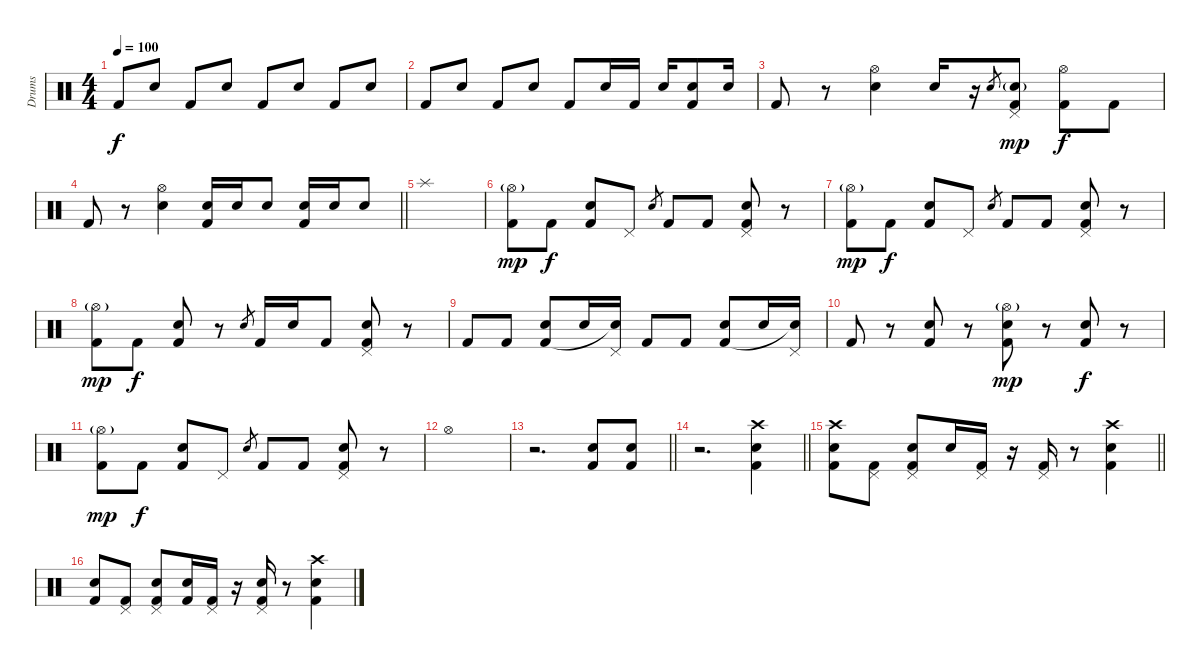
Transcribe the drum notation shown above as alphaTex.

\track ("Drums" "Drums") {instrument percussion}
\staff {score}
\articulation defaults
\ts (4 4)
\tempo 100
\clef neutral
\ks c "Kick (hit) 2".8{dy f} "Snare (hit) 2".8 "Kick (hit) 2".8 "Snare (hit) 2".8 "Kick (hit) 2".8 "Snare (hit) 2".8 "Kick (hit) 2".8 "Snare (hit) 2".8
|
"Kick (hit) 2".8 "Snare (hit) 2".8 "Kick (hit) 2".8 "Snare (hit) 2".8 "Kick (hit) 2".8 "Snare (hit) 2".16 "Kick (hit) 2".16 "Snare (hit) 2".16 ("Snare (hit) 2" "Kick (hit) 2").8 "Snare (hit) 2".16 |
"Kick (hit) 2".8 r.8 ("Hi-Hat (open)" "Snare (hit) 2").4 "Snare (hit) 2".16 r.16 "Snare (hit) 2".8{gr} ("Pedal Hi-Hat (hit)" "Snare (hit) 2"{g} "Kick (hit) 2").8{dy mp} ("Hi-Hat (open)" "Kick (hit) 2").8{dy f} "Kick (hit) 2".8 |
\barLineRight lightlight "Kick (hit) 2".8
r.8 ("Hi-Hat (open)" "Snare (hit) 2").4 ("Snare (hit) 2" "Kick (hit) 2").16 "Snare (hit) 2".16 "Snare (hit) 2".8 ("Snare (hit) 2" "Kick (hit) 2").16 "Snare (hit) 2".16 "Snare (hit) 2".8 |
"Splash (hit)".1 |
("Hi-Hat (open)"{g} "Kick (hit) 2").8{dy mp} "Kick (hit) 2".8{dy f} ("Snare (hit) 2" "Kick (hit) 2").8 "Pedal Hi-Hat (hit)".8 "Snare (hit) 2".8{gr} "Kick (hit) 2".8 "Kick (hit) 2".8 ("Pedal Hi-Hat (hit)" "Snare (hit) 2" "Kick (hit) 2").8 r.8 |
("Hi-Hat (open)"{g} "Kick (hit) 2").8{dy mp} "Kick (hit) 2".8{dy f} ("Snare (hit) 2" "Kick (hit) 2").8 "Pedal Hi-Hat (hit)".8 "Snare (hit) 2".8{gr} "Kick (hit) 2".8 "Kick (hit) 2".8 ("Pedal Hi-Hat (hit)" "Snare (hit) 2" "Kick (hit) 2").8 r.8 |
("Hi-Hat (open)"{g} "Kick (hit) 2").8{dy mp} "Kick (hit) 2".8{dy f} ("Snare (hit) 2" "Kick (hit) 2").8 r.8 "Snare (hit) 2".8{gr} "Kick (hit) 2".16 "Snare (hit) 2".16 "Kick (hit) 2".8 ("Pedal Hi-Hat (hit)" "Snare (hit) 2" "Kick (hit) 2").8 r.8 |
"Kick (hit) 2".8 "Kick (hit) 2".8 ("Snare (hit) 2" "Kick (hit) 2").8 "Snare (hit) 2".16 ("Pedal Hi-Hat (hit)" "Snare (hit)"{t}).16 "Kick (hit) 2".8 "Kick (hit) 2".8 ("Snare (hit) 2" "Kick (hit) 2").8 "Snare (hit) 2".16 ("Pedal Hi-Hat (hit)" "Snare (hit)"{t}).16 |
"Kick (hit) 2".8 r.8 ("Snare (hit) 2" "Kick (hit) 2").8 r.8 ("Hi-Hat (open)"{g} "Snare (hit) 2" "Kick (hit) 2").8{dy mp} r.8 ("Snare (hit) 2" "Kick (hit) 2").8{dy f} r.8 |
("Hi-Hat (open)"{g} "Kick (hit) 2").8{dy mp} "Kick (hit) 2".8{dy f} ("Snare (hit) 2" "Kick (hit) 2").8 "Pedal Hi-Hat (hit)".8 "Snare (hit) 2".8{gr} "Kick (hit) 2".8 "Kick (hit) 2".8 ("Pedal Hi-Hat (hit)" "Snare (hit) 2" "Kick (hit) 2").8 r.8 |
"Hi-Hat (open)".1 |
\barLineRight lightlight
r.2{d volume 14} ("Snare (hit) 2" "Kick (hit) 2").8 ("Snare (hit) 2" "Kick (hit) 2").8 |
\barLineRight lightlight
r.2{d volume 11} ("Crash high (hit)" "Snare (hit) 2" "Kick (hit) 2").4 |
\barLineRight lightlight
("Crash high (hit)" "Snare (hit) 2" "Kick (hit) 2").8 ("Pedal Hi-Hat (hit)" "Kick (hit) 2").8 ("Pedal Hi-Hat (hit)" "Snare (hit) 2" "Kick (hit) 2").8 "Snare (hit) 2".16 ("Pedal Hi-Hat (hit)" "Kick (hit) 2").16 r.16 ("Pedal Hi-Hat (hit)" "Kick (hit) 2").16 r.8 ("Crash high (hit)" "Snare (hit) 2" "Kick (hit) 2").4 |
("Snare (hit) 2" "Kick (hit) 2").8 ("Pedal Hi-Hat (hit)" "Kick (hit) 2").8 ("Pedal Hi-Hat (hit)" "Snare (hit) 2" "Kick (hit) 2").8 ("Snare (hit) 2" "Kick (hit) 2").16 ("Pedal Hi-Hat (hit)" "Kick (hit) 2").16 r.16 ("Pedal Hi-Hat (hit)" "Snare (hit) 2" "Kick (hit) 2").16 r.8 ("Crash high (hit)" "Snare (hit) 2" "Kick (hit) 2").4
